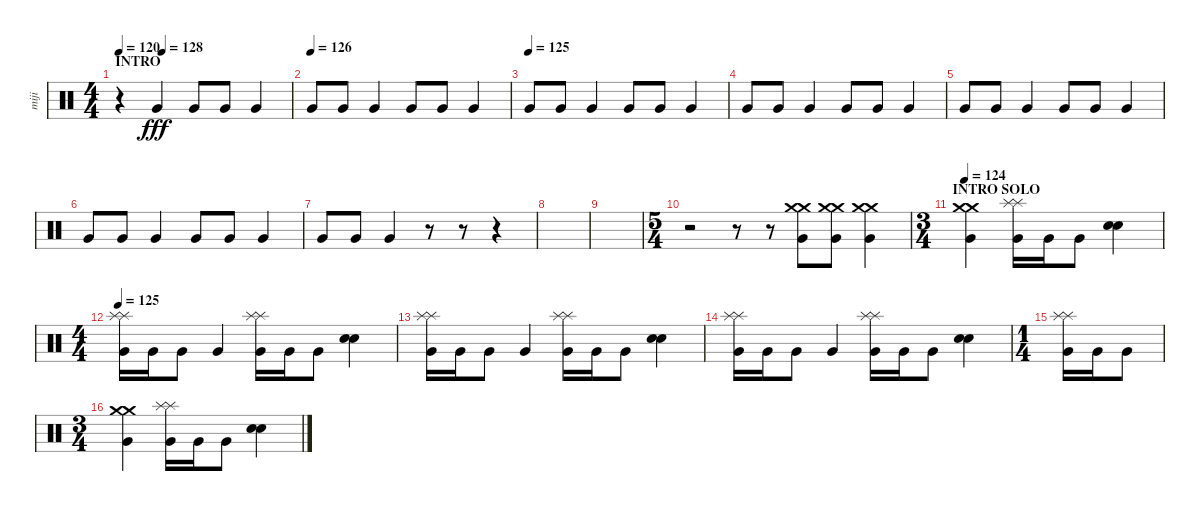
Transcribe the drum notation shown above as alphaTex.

\track ("miji" "miji") {instrument percussion}
\staff {score}
\articulation defaults
\ts (4 4)
\section ("" "INTRO")
\tempo 120
\tempo 200
\tempo (128 0.25)
\tempo 120
\clef neutral
\ks c
r.4{dy fff} "Very Low Tom (hit)".4{volume 16} "Very Low Tom (hit)".8{volume 8} "Very Low Tom (hit)".8 "Very Low Tom (hit)".4{volume 16} |
\tempo (126)
"Very Low Tom (hit)".8{volume 8} "Very Low Tom (hit)".8 "Very Low Tom (hit)".4{volume 16} "Very Low Tom (hit)".8{volume 8} "Very Low Tom (hit)".8 "Very Low Tom (hit)".4{volume 16} |
\tempo (125)
"Very Low Tom (hit)".8{volume 8} "Very Low Tom (hit)".8 "Very Low Tom (hit)".4{volume 16} "Very Low Tom (hit)".8{volume 8} "Very Low Tom (hit)".8 "Very Low Tom (hit)".4{volume 16} |
"Very Low Tom (hit)".8{volume 8} "Very Low Tom (hit)".8 "Very Low Tom (hit)".4{volume 16} "Very Low Tom (hit)".8{volume 8} "Very Low Tom (hit)".8 "Very Low Tom (hit)".4{volume 16} |
"Very Low Tom (hit)".8{volume 8} "Very Low Tom (hit)".8 "Very Low Tom (hit)".4{volume 16} "Very Low Tom (hit)".8{volume 8} "Very Low Tom (hit)".8 "Very Low Tom (hit)".4{volume 16} |
"Very Low Tom (hit)".8{volume 8} "Very Low Tom (hit)".8 "Very Low Tom (hit)".4{volume 16} "Very Low Tom (hit)".8{volume 8} "Very Low Tom (hit)".8 "Very Low Tom (hit)".4{volume 16} |
"Very Low Tom (hit)".8{volume 8} "Very Low Tom (hit)".8 "Very Low Tom (hit)".4{volume 16} r.8 r.8 r.4 |
|
|
\ts (5 4)
r.2 r.8 r.8 ("Very Low Tom (hit)" "Crash medium (hit)" "Crash medium (hit)").8 ("Very Low Tom (hit)" "Crash medium (hit)" "Crash medium (hit)").8 ("Very Low Tom (hit)" "Crash medium (hit)" "Crash medium (hit)").4 |
\ts (3 4)
\section ("" "INTRO SOLO")
\tempo 124
("Very Low Tom (hit)" "Crash medium (hit)" "Crash medium (hit)").4 ("Very Low Tom (hit)" "Splash (hit)" "Splash (hit)").16 "Very Low Tom (hit)".16 "Very Low Tom (hit)".8 ("Electric Snare (hit)" "Electric Snare (hit)").4 |
\ts (4 4)
\tempo 125
("Very Low Tom (hit)" "Splash (hit)" "Splash (hit)").16 "Very Low Tom (hit)".16 "Very Low Tom (hit)".8 "Very Low Tom (hit)".4 ("Very Low Tom (hit)" "Splash (hit)" "Splash (hit)").16 "Very Low Tom (hit)".16 "Very Low Tom (hit)".8 ("Electric Snare (hit)" "Electric Snare (hit)").4 |
("Very Low Tom (hit)" "Splash (hit)" "Splash (hit)").16 "Very Low Tom (hit)".16 "Very Low Tom (hit)".8 "Very Low Tom (hit)".4 ("Very Low Tom (hit)" "Splash (hit)" "Splash (hit)").16 "Very Low Tom (hit)".16 "Very Low Tom (hit)".8 ("Electric Snare (hit)" "Electric Snare (hit)").4 |
("Very Low Tom (hit)" "Splash (hit)" "Splash (hit)").16 "Very Low Tom (hit)".16 "Very Low Tom (hit)".8 "Very Low Tom (hit)".4 ("Very Low Tom (hit)" "Splash (hit)" "Splash (hit)").16 "Very Low Tom (hit)".16 "Very Low Tom (hit)".8 ("Electric Snare (hit)" "Electric Snare (hit)").4 |
\ts (1 4)
("Very Low Tom (hit)" "Splash (hit)" "Splash (hit)").16 "Very Low Tom (hit)".16 "Very Low Tom (hit)".8 |
\ts (3 4)
("Very Low Tom (hit)" "Crash medium (hit)" "Crash medium (hit)").4 ("Very Low Tom (hit)" "Splash (hit)" "Splash (hit)").16 "Very Low Tom (hit)".16 "Very Low Tom (hit)".8 ("Electric Snare (hit)" "Electric Snare (hit)").4
